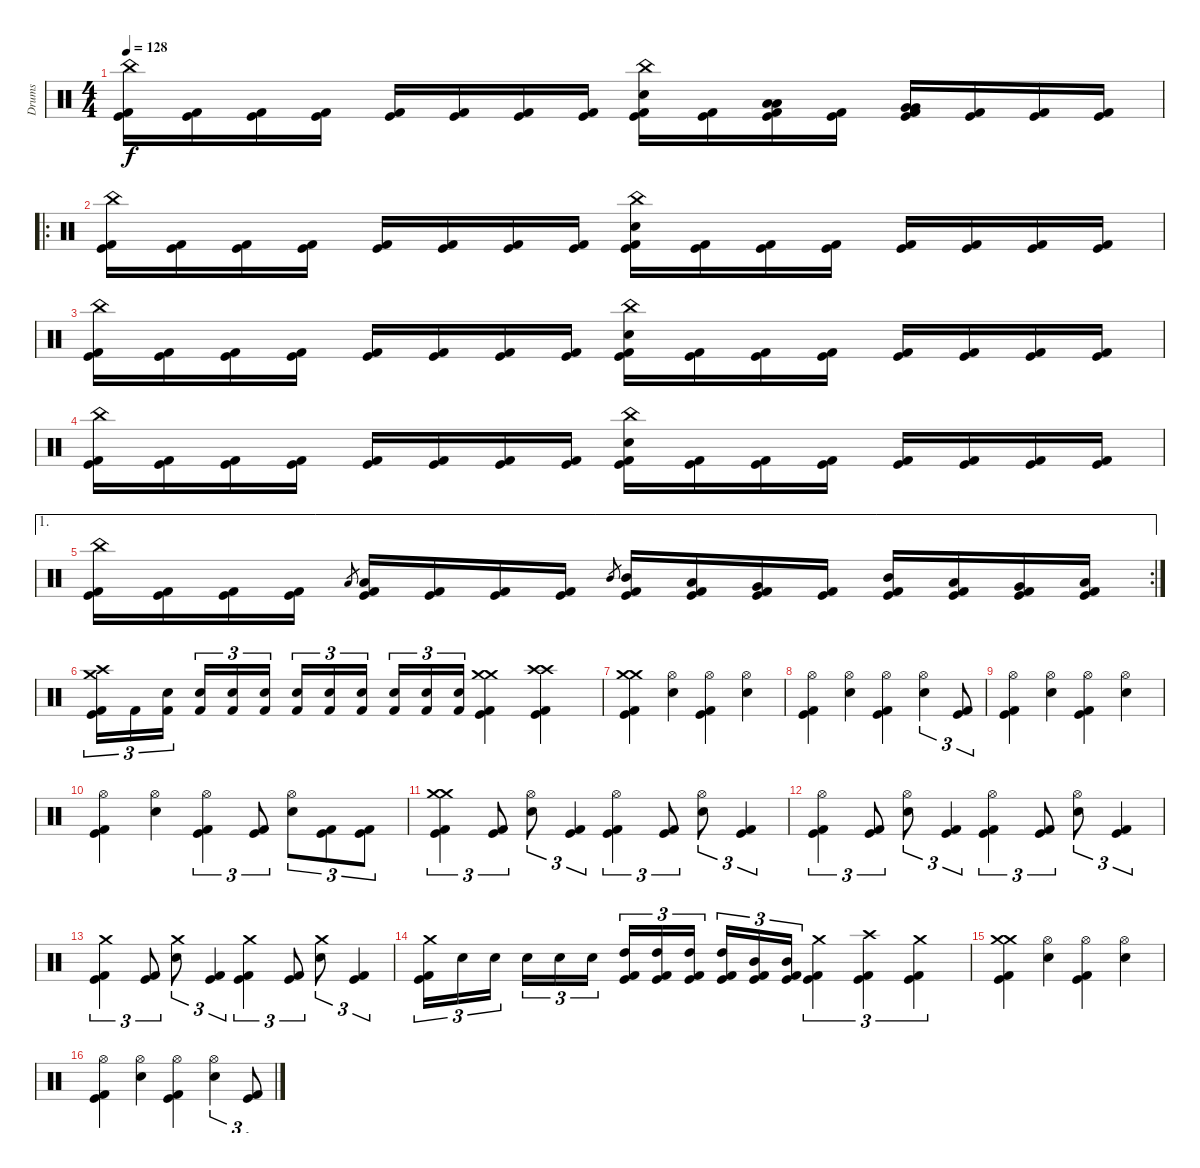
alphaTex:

\track ("Drums" "Drums") {instrument percussion}
\staff {score}
\articulation defaults
\ts (4 4)
\tempo 128
\clef neutral
\ks c
("China (hit)" "Kick (hit)" "Kick (hit) 2").16{dy f} ("Kick (hit)" "Kick (hit) 2").16 ("Kick (hit)" "Kick (hit) 2").16 ("Kick (hit)" "Kick (hit) 2").16 ("Kick (hit)" "Kick (hit) 2").16 ("Kick (hit)" "Kick (hit) 2").16 ("Kick (hit)" "Kick (hit) 2").16 ("Kick (hit)" "Kick (hit) 2").16 ("China (hit)" "Electric Snare (hit)" "Kick (hit)" "Kick (hit) 2").16 ("Kick (hit)" "Kick (hit) 2").16 ("Low Tom (hit)" "Low Tom (hit)" "Kick (hit)" "Kick (hit) 2").16 ("Kick (hit)" "Kick (hit) 2").16 ("Very Low Tom (hit)" "Very Low Tom (hit)" "Kick (hit)" "Kick (hit) 2").16 ("Kick (hit)" "Kick (hit) 2").16 ("Kick (hit)" "Kick (hit) 2").16 ("Kick (hit)" "Kick (hit) 2").16 |
\ro
("China (hit)" "Kick (hit)" "Kick (hit) 2").16 ("Kick (hit)" "Kick (hit) 2").16 ("Kick (hit)" "Kick (hit) 2").16 ("Kick (hit)" "Kick (hit) 2").16 ("Kick (hit)" "Kick (hit) 2").16 ("Kick (hit)" "Kick (hit) 2").16 ("Kick (hit)" "Kick (hit) 2").16 ("Kick (hit)" "Kick (hit) 2").16 ("China (hit)" "Electric Snare (hit)" "Kick (hit)" "Kick (hit) 2").16 ("Kick (hit)" "Kick (hit) 2").16 ("Kick (hit)" "Kick (hit) 2").16 ("Kick (hit)" "Kick (hit) 2").16 ("Kick (hit)" "Kick (hit) 2").16 ("Kick (hit)" "Kick (hit) 2").16 ("Kick (hit)" "Kick (hit) 2").16 ("Kick (hit)" "Kick (hit) 2").16 |
("China (hit)" "Kick (hit)" "Kick (hit) 2").16 ("Kick (hit)" "Kick (hit) 2").16 ("Kick (hit)" "Kick (hit) 2").16 ("Kick (hit)" "Kick (hit) 2").16 ("Kick (hit)" "Kick (hit) 2").16 ("Kick (hit)" "Kick (hit) 2").16 ("Kick (hit)" "Kick (hit) 2").16 ("Kick (hit)" "Kick (hit) 2").16 ("China (hit)" "Electric Snare (hit)" "Kick (hit)" "Kick (hit) 2").16 ("Kick (hit)" "Kick (hit) 2").16 ("Kick (hit)" "Kick (hit) 2").16 ("Kick (hit)" "Kick (hit) 2").16 ("Kick (hit)" "Kick (hit) 2").16 ("Kick (hit)" "Kick (hit) 2").16 ("Kick (hit)" "Kick (hit) 2").16 ("Kick (hit)" "Kick (hit) 2").16 |
("China (hit)" "Kick (hit)" "Kick (hit) 2").16 ("Kick (hit)" "Kick (hit) 2").16 ("Kick (hit)" "Kick (hit) 2").16 ("Kick (hit)" "Kick (hit) 2").16 ("Kick (hit)" "Kick (hit) 2").16 ("Kick (hit)" "Kick (hit) 2").16 ("Kick (hit)" "Kick (hit) 2").16 ("Kick (hit)" "Kick (hit) 2").16 ("China (hit)" "Electric Snare (hit)" "Kick (hit)" "Kick (hit) 2").16 ("Kick (hit)" "Kick (hit) 2").16 ("Kick (hit)" "Kick (hit) 2").16 ("Kick (hit)" "Kick (hit) 2").16 ("Kick (hit)" "Kick (hit) 2").16 ("Kick (hit)" "Kick (hit) 2").16 ("Kick (hit)" "Kick (hit) 2").16 ("Kick (hit)" "Kick (hit) 2").16 |
\ae 1
\rc 2
("China (hit)" "Kick (hit)" "Kick (hit) 2").16 ("Kick (hit)" "Kick (hit) 2").16 ("Kick (hit)" "Kick (hit) 2").16 ("Kick (hit)" "Kick (hit) 2").16 "Low Tom (hit)".8{gr} ("Low Tom (hit)" "Kick (hit)" "Kick (hit) 2").16 ("Kick (hit)" "Kick (hit) 2").16 ("Kick (hit)" "Kick (hit) 2").16 ("Kick (hit)" "Kick (hit) 2").16 "Mid Tom (hit)".8{gr} ("Mid Tom (hit)" "Kick (hit)" "Kick (hit) 2").16 ("Low Tom (hit)" "Kick (hit)" "Kick (hit) 2").16 ("Very Low Tom (hit)" "Kick (hit)" "Kick (hit) 2").16 ("Kick (hit)" "Kick (hit) 2").16 ("Mid Tom (hit)" "Kick (hit)" "Kick (hit) 2").16 ("Low Tom (hit)" "Kick (hit)" "Kick (hit) 2").16 ("Very Low Tom (hit)" "Kick (hit)" "Kick (hit) 2").16 ("Low Floor Tom (hit)" "Kick (hit)" "Kick (hit) 2").16 |
("Crash medium (hit)" "Crash high (hit)" "Kick (hit)" "Kick (hit) 2").16{tu (3 2)} "Kick (hit) 2".16{tu (3 2)} ("Electric Snare (hit)" "Kick (hit) 2").16{tu (3 2)} ("Electric Snare (hit)" "Kick (hit) 2").16{tu (3 2)} ("Electric Snare (hit)" "Kick (hit) 2").16{tu (3 2)} ("Electric Snare (hit)" "Kick (hit) 2").16{tu (3 2)} ("Electric Snare (hit)" "Kick (hit) 2").16{tu (3 2)} ("Electric Snare (hit)" "Kick (hit) 2").16{tu (3 2)} ("Electric Snare (hit)" "Kick (hit) 2").16{tu (3 2)} ("Electric Snare (hit)" "Kick (hit) 2").16{tu (3 2)} ("Electric Snare (hit)" "Kick (hit) 2").16{tu (3 2)} ("Electric Snare (hit)" "Kick (hit) 2").16{tu (3 2)} ("Crash medium (hit)" "Crash medium (hit)" "Kick (hit)" "Kick (hit) 2").4 ("Crash high (hit)" "Crash high (hit)" "Kick (hit)" "Kick (hit) 2").4 |
("Crash medium (hit)" "Crash medium (hit)" "Kick (hit)" "Kick (hit) 2").4 ("Hi-Hat (open)" "Electric Snare (hit)").4 ("Hi-Hat (open)" "Kick (hit)" "Kick (hit) 2").4 ("Hi-Hat (open)" "Electric Snare (hit)").4 |
("Hi-Hat (open)" "Kick (hit)" "Kick (hit) 2").4 ("Hi-Hat (open)" "Electric Snare (hit)").4 ("Hi-Hat (open)" "Kick (hit)" "Kick (hit) 2").4 ("Hi-Hat (open)" "Electric Snare (hit)").4{tu (3 2)} ("Kick (hit)" "Kick (hit) 2").8{tu (3 2)} |
("Hi-Hat (open)" "Kick (hit)" "Kick (hit) 2").4 ("Hi-Hat (open)" "Electric Snare (hit)").4 ("Hi-Hat (open)" "Kick (hit)" "Kick (hit) 2").4 ("Hi-Hat (open)" "Electric Snare (hit)").4 |
("Hi-Hat (open)" "Kick (hit)" "Kick (hit) 2").4 ("Hi-Hat (open)" "Electric Snare (hit)").4 ("Hi-Hat (open)" "Kick (hit)" "Kick (hit) 2").4{tu (3 2)} ("Kick (hit)" "Kick (hit) 2").8{tu (3 2)} ("Hi-Hat (open)" "Electric Snare (hit)").8{tu (3 2)} ("Kick (hit)" "Kick (hit) 2").8{tu (3 2)} ("Kick (hit)" "Kick (hit) 2").8{tu (3 2)} |
("Crash medium (hit)" "Crash medium (hit)" "Kick (hit)" "Kick (hit) 2").4{tu (3 2)} ("Kick (hit)" "Kick (hit) 2").8{tu (3 2)} ("Hi-Hat (open)" "Electric Snare (hit)").8{tu (3 2)} ("Kick (hit)" "Kick (hit) 2").4{tu (3 2)} ("Hi-Hat (open)" "Kick (hit)" "Kick (hit) 2").4{tu (3 2)} ("Kick (hit)" "Kick (hit) 2").8{tu (3 2)} ("Hi-Hat (open)" "Electric Snare (hit)").8{tu (3 2)} ("Kick (hit)" "Kick (hit) 2").4{tu (3 2)} |
("Hi-Hat (open)" "Kick (hit)" "Kick (hit) 2").4{tu (3 2)} ("Kick (hit)" "Kick (hit) 2").8{tu (3 2)} ("Hi-Hat (open)" "Electric Snare (hit)").8{tu (3 2)} ("Kick (hit)" "Kick (hit) 2").4{tu (3 2)} ("Hi-Hat (open)" "Kick (hit)" "Kick (hit) 2").4{tu (3 2)} ("Kick (hit)" "Kick (hit) 2").8{tu (3 2)} ("Hi-Hat (open)" "Electric Snare (hit)").8{tu (3 2)} ("Kick (hit)" "Kick (hit) 2").4{tu (3 2)} |
("Crash medium (hit)" "Kick (hit)" "Kick (hit) 2").4{tu (3 2)} ("Kick (hit)" "Kick (hit) 2").8{tu (3 2)} ("Crash medium (hit)" "Electric Snare (hit)").8{tu (3 2)} ("Kick (hit)" "Kick (hit) 2").4{tu (3 2)} ("Crash medium (hit)" "Kick (hit)" "Kick (hit) 2").4{tu (3 2)} ("Kick (hit)" "Kick (hit) 2").8{tu (3 2)} ("Crash medium (hit)" "Electric Snare (hit)").8{tu (3 2)} ("Kick (hit)" "Kick (hit) 2").4{tu (3 2)} |
("Crash medium (hit)" "Kick (hit)" "Kick (hit) 2").16{tu (3 2)} "Electric Snare (hit)".16{tu (3 2)} "Electric Snare (hit)".16{tu (3 2)} "Electric Snare (hit)".16{tu (3 2)} "Electric Snare (hit)".16{tu (3 2)} "Electric Snare (hit)".16{tu (3 2)} ("High Tom (hit)" "Kick (hit)" "Kick (hit) 2").16{tu (3 2)} ("High Tom (hit)" "Kick (hit)" "Kick (hit) 2").16{tu (3 2)} ("High Tom (hit)" "Kick (hit)" "Kick (hit) 2").16{tu (3 2)} ("High Tom (hit)" "Kick (hit)" "Kick (hit) 2").16{tu (3 2)} ("Mid Tom (hit)" "Kick (hit)" "Kick (hit) 2").16{tu (3 2)} ("Mid Tom (hit)" "Kick (hit)" "Kick (hit) 2").16{tu (3 2)} ("Crash medium (hit)" "Kick (hit)" "Kick (hit) 2").4{tu (3 2)} ("Crash high (hit)" "Kick (hit)" "Kick (hit) 2").4{tu (3 2)} ("Crash medium (hit)" "Kick (hit)" "Kick (hit) 2").4{tu (3 2)} |
("Crash medium (hit)" "Crash medium (hit)" "Kick (hit)" "Kick (hit) 2").4 ("Hi-Hat (open)" "Electric Snare (hit)").4 ("Hi-Hat (open)" "Kick (hit)" "Kick (hit) 2").4 ("Hi-Hat (open)" "Electric Snare (hit)").4 |
("Hi-Hat (open)" "Kick (hit)" "Kick (hit) 2").4 ("Hi-Hat (open)" "Electric Snare (hit)").4 ("Hi-Hat (open)" "Kick (hit)" "Kick (hit) 2").4 ("Hi-Hat (open)" "Electric Snare (hit)").4{tu (3 2)} ("Kick (hit)" "Kick (hit) 2").8{tu (3 2)}
